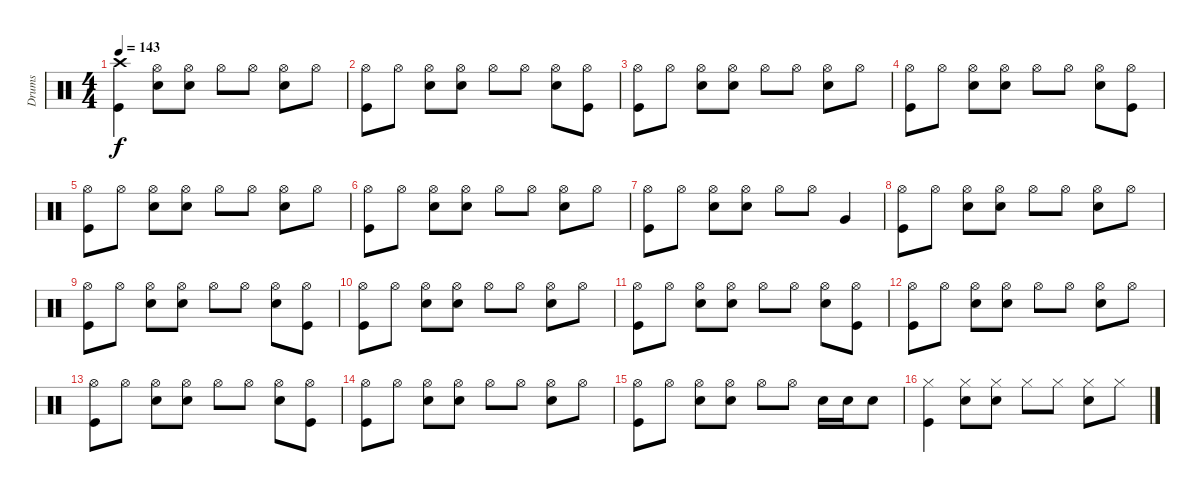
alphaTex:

\track ("Drums" "Drums") {instrument percussion}
\staff {score}
\articulation defaults
\ts (4 4)
\tempo 143
\clef neutral
\ks c
("Crash high (hit)" "Kick (hit)").4{dy f} ("Hi-Hat (open)" "Snare (hit) 2").8 ("Hi-Hat (open)" "Snare (hit) 2").8 "Hi-Hat (open)".8 "Hi-Hat (open)".8 ("Hi-Hat (open)" "Snare (hit) 2").8 "Hi-Hat (open)".8 |
("Hi-Hat (open)" "Kick (hit)").8 "Hi-Hat (open)".8 ("Hi-Hat (open)" "Snare (hit) 2").8 ("Hi-Hat (open)" "Snare (hit) 2").8 "Hi-Hat (open)".8 "Hi-Hat (open)".8 ("Hi-Hat (open)" "Snare (hit) 2").8 ("Hi-Hat (open)" "Kick (hit)").8 |
("Hi-Hat (open)" "Kick (hit)").8 "Hi-Hat (open)".8 ("Hi-Hat (open)" "Snare (hit) 2").8 ("Hi-Hat (open)" "Snare (hit) 2").8 "Hi-Hat (open)".8 "Hi-Hat (open)".8 ("Hi-Hat (open)" "Snare (hit) 2").8 "Hi-Hat (open)".8 |
("Kick (hit)" "Hi-Hat (open)").8 "Hi-Hat (open)".8 ("Hi-Hat (open)" "Snare (hit) 2").8 ("Hi-Hat (open)" "Snare (hit) 2").8 "Hi-Hat (open)".8 "Hi-Hat (open)".8 ("Hi-Hat (open)" "Snare (hit) 2").8 ("Hi-Hat (open)" "Kick (hit)").8 |
("Hi-Hat (open)" "Kick (hit)").8 "Hi-Hat (open)".8 ("Hi-Hat (open)" "Snare (hit) 2").8 ("Hi-Hat (open)" "Snare (hit) 2").8 "Hi-Hat (open)".8 "Hi-Hat (open)".8 ("Hi-Hat (open)" "Snare (hit) 2").8 "Hi-Hat (open)".8 |
("Kick (hit)" "Hi-Hat (open)").8 "Hi-Hat (open)".8 ("Hi-Hat (open)" "Snare (hit) 2").8 ("Hi-Hat (open)" "Snare (hit) 2").8 "Hi-Hat (open)".8 "Hi-Hat (open)".8 ("Hi-Hat (open)" "Snare (hit) 2").8 "Hi-Hat (open)".8 |
("Kick (hit)" "Hi-Hat (open)").8 "Hi-Hat (open)".8 ("Hi-Hat (open)" "Snare (hit) 2").8 ("Hi-Hat (open)" "Snare (hit) 2").8 "Hi-Hat (open)".8 "Hi-Hat (open)".8 "Very Low Tom (hit)".4 |
("Hi-Hat (open)" "Kick (hit)").8 "Hi-Hat (open)".8 ("Hi-Hat (open)" "Snare (hit) 2").8 ("Hi-Hat (open)" "Snare (hit) 2").8 "Hi-Hat (open)".8 "Hi-Hat (open)".8 ("Hi-Hat (open)" "Snare (hit) 2").8 "Hi-Hat (open)".8 |
("Kick (hit)" "Hi-Hat (open)").8 "Hi-Hat (open)".8 ("Hi-Hat (open)" "Snare (hit) 2").8 ("Hi-Hat (open)" "Snare (hit) 2").8 "Hi-Hat (open)".8 "Hi-Hat (open)".8 ("Hi-Hat (open)" "Snare (hit) 2").8 ("Hi-Hat (open)" "Kick (hit)").8 |
("Kick (hit)" "Hi-Hat (open)").8 "Hi-Hat (open)".8 ("Hi-Hat (open)" "Snare (hit) 2").8 ("Hi-Hat (open)" "Snare (hit) 2").8 "Hi-Hat (open)".8 "Hi-Hat (open)".8 ("Hi-Hat (open)" "Snare (hit) 2").8 "Hi-Hat (open)".8 |
("Kick (hit)" "Hi-Hat (open)").8 "Hi-Hat (open)".8 ("Hi-Hat (open)" "Snare (hit) 2").8 ("Hi-Hat (open)" "Snare (hit) 2").8 "Hi-Hat (open)".8 "Hi-Hat (open)".8 ("Hi-Hat (open)" "Snare (hit) 2").8 ("Hi-Hat (open)" "Kick (hit)").8 |
("Kick (hit)" "Hi-Hat (open)").8 "Hi-Hat (open)".8 ("Hi-Hat (open)" "Snare (hit) 2").8 ("Hi-Hat (open)" "Snare (hit) 2").8 "Hi-Hat (open)".8 "Hi-Hat (open)".8 ("Hi-Hat (open)" "Snare (hit) 2").8 "Hi-Hat (open)".8 |
("Kick (hit)" "Hi-Hat (open)").8 "Hi-Hat (open)".8 ("Hi-Hat (open)" "Snare (hit) 2").8 ("Hi-Hat (open)" "Snare (hit) 2").8 "Hi-Hat (open)".8 "Hi-Hat (open)".8 ("Hi-Hat (open)" "Snare (hit) 2").8 ("Hi-Hat (open)" "Kick (hit)").8 |
("Hi-Hat (open)" "Kick (hit)").8 "Hi-Hat (open)".8 ("Hi-Hat (open)" "Snare (hit) 2").8 ("Hi-Hat (open)" "Snare (hit) 2").8 "Hi-Hat (open)".8 "Hi-Hat (open)".8 ("Hi-Hat (open)" "Snare (hit) 2").8 "Hi-Hat (open)".8 |
("Hi-Hat (open)" "Kick (hit)").8 "Hi-Hat (open)".8 ("Hi-Hat (open)" "Snare (hit) 2").8 ("Hi-Hat (open)" "Snare (hit) 2").8 "Hi-Hat (open)".8 "Hi-Hat (open)".8 "Snare (hit) 2".16 "Snare (hit) 2".16 "Snare (hit) 2".8 |
("Hi-Hat (closed)" "Kick (hit)").4 ("Hi-Hat (closed)" "Snare (hit) 2").8 ("Hi-Hat (closed)" "Snare (hit) 2").8 "Hi-Hat (closed)".8 "Hi-Hat (closed)".8 ("Hi-Hat (closed)" "Snare (hit) 2").8 "Hi-Hat (closed)".8
